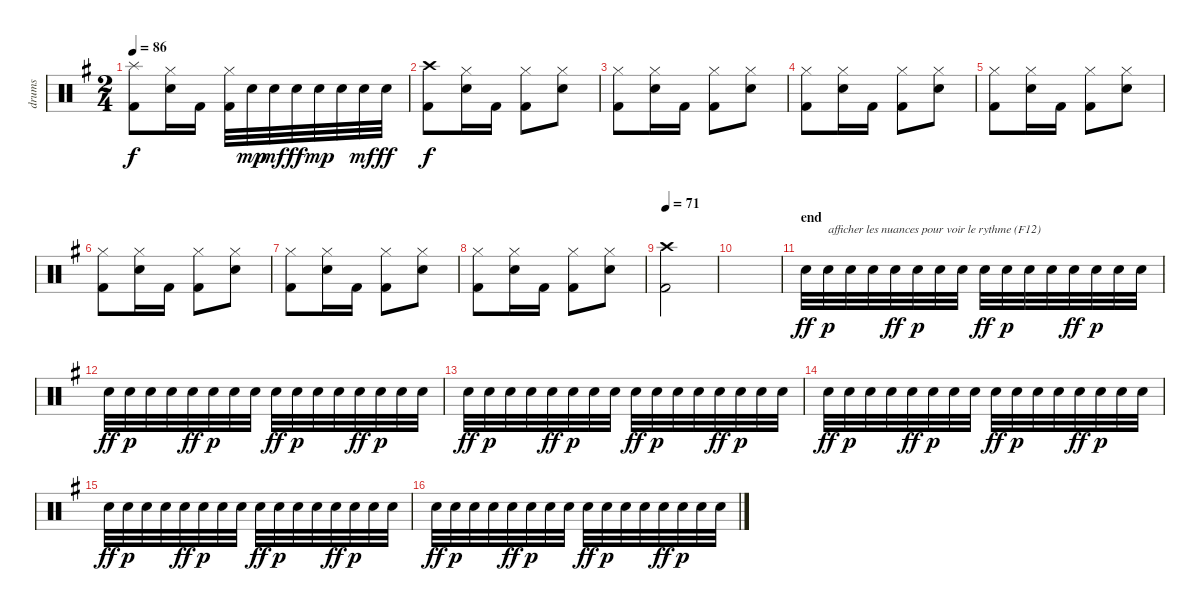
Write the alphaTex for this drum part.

\track ("drums" "drums") {instrument percussion}
\staff {score}
\articulation defaults
\ts (2 4)
\tempo 86
\clef neutral
\ks g
("Splash (hit)" "Kick (hit) 2").8{dy f} ("Hi-Hat (closed)" "Snare (hit) 2").16 "Kick (hit) 2".16 ("Hi-Hat (closed)" "Kick (hit) 2").32 "Snare (hit) 2".32{dy mp} "Snare (hit) 2".32{dy mf} "Snare (hit) 2".32{dy ff} "Snare (hit) 2".32{dy mp} "Snare (hit) 2".32 "Snare (hit) 2".32{dy mf} "Snare (hit) 2".32{dy ff} |
("Crash high (hit)" "Kick (hit) 2").8{dy f} ("Hi-Hat (closed)" "Snare (hit) 2").16 "Kick (hit) 2".16 ("Hi-Hat (closed)" "Kick (hit) 2").8 ("Hi-Hat (closed)" "Snare (hit) 2").8 |
("Hi-Hat (closed)" "Kick (hit) 2").8 ("Hi-Hat (closed)" "Snare (hit) 2").16 "Kick (hit) 2".16 ("Hi-Hat (closed)" "Kick (hit) 2").8 ("Hi-Hat (closed)" "Snare (hit) 2").8 |
("Hi-Hat (closed)" "Kick (hit) 2").8 ("Hi-Hat (closed)" "Snare (hit) 2").16 "Kick (hit) 2".16 ("Hi-Hat (closed)" "Kick (hit) 2").8 ("Hi-Hat (closed)" "Snare (hit) 2").8 |
("Hi-Hat (closed)" "Kick (hit) 2").8 ("Hi-Hat (closed)" "Snare (hit) 2").16 "Kick (hit) 2".16 ("Hi-Hat (closed)" "Kick (hit) 2").8 ("Hi-Hat (closed)" "Snare (hit) 2").8 |
("Hi-Hat (closed)" "Kick (hit) 2").8 ("Hi-Hat (closed)" "Snare (hit) 2").16 "Kick (hit) 2".16 ("Hi-Hat (closed)" "Kick (hit) 2").8 ("Hi-Hat (closed)" "Snare (hit) 2").8 |
("Hi-Hat (closed)" "Kick (hit) 2").8 ("Hi-Hat (closed)" "Snare (hit) 2").16 "Kick (hit) 2".16 ("Hi-Hat (closed)" "Kick (hit) 2").8 ("Hi-Hat (closed)" "Snare (hit) 2").8 |
("Hi-Hat (closed)" "Kick (hit) 2").8 ("Hi-Hat (closed)" "Snare (hit) 2").16 "Kick (hit) 2".16 ("Hi-Hat (closed)" "Kick (hit) 2").8 ("Hi-Hat (closed)" "Snare (hit) 2").8 |
\tempo 71
("Crash high (hit)" "Kick (hit) 2").2 |
|
\section ("" "end")
"Snare (hit) 2".32{dy ff volume 0} "Snare (hit) 2".32{txt "afficher les nuances pour voir le rythme (F12)" dy p} "Snare (hit) 2".32 "Snare (hit) 2".32 "Snare (hit) 2".32{dy ff} "Snare (hit) 2".32{dy p} "Snare (hit) 2".32 "Snare (hit) 2".32 "Snare (hit) 2".32{dy ff volume 1} "Snare (hit) 2".32{dy p} "Snare (hit) 2".32 "Snare (hit) 2".32 "Snare (hit) 2".32{dy ff} "Snare (hit) 2".32{dy p} "Snare (hit) 2".32 "Snare (hit) 2".32 |
"Snare (hit) 2".32{dy ff} "Snare (hit) 2".32{dy p} "Snare (hit) 2".32 "Snare (hit) 2".32 "Snare (hit) 2".32{dy ff} "Snare (hit) 2".32{dy p} "Snare (hit) 2".32 "Snare (hit) 2".32 "Snare (hit) 2".32{dy ff volume 3} "Snare (hit) 2".32{dy p} "Snare (hit) 2".32 "Snare (hit) 2".32 "Snare (hit) 2".32{dy ff} "Snare (hit) 2".32{dy p} "Snare (hit) 2".32 "Snare (hit) 2".32 |
"Snare (hit) 2".32{dy ff} "Snare (hit) 2".32{dy p} "Snare (hit) 2".32 "Snare (hit) 2".32 "Snare (hit) 2".32{dy ff} "Snare (hit) 2".32{dy p} "Snare (hit) 2".32 "Snare (hit) 2".32 "Snare (hit) 2".32{dy ff volume 3} "Snare (hit) 2".32{dy p} "Snare (hit) 2".32 "Snare (hit) 2".32 "Snare (hit) 2".32{dy ff} "Snare (hit) 2".32{dy p} "Snare (hit) 2".32 "Snare (hit) 2".32 |
"Snare (hit) 2".32{dy ff} "Snare (hit) 2".32{dy p} "Snare (hit) 2".32 "Snare (hit) 2".32 "Snare (hit) 2".32{dy ff} "Snare (hit) 2".32{dy p} "Snare (hit) 2".32 "Snare (hit) 2".32 "Snare (hit) 2".32{dy ff volume 5} "Snare (hit) 2".32{dy p} "Snare (hit) 2".32 "Snare (hit) 2".32 "Snare (hit) 2".32{dy ff} "Snare (hit) 2".32{dy p} "Snare (hit) 2".32 "Snare (hit) 2".32 |
"Snare (hit) 2".32{dy ff} "Snare (hit) 2".32{dy p} "Snare (hit) 2".32 "Snare (hit) 2".32 "Snare (hit) 2".32{dy ff} "Snare (hit) 2".32{dy p} "Snare (hit) 2".32 "Snare (hit) 2".32 "Snare (hit) 2".32{dy ff volume 6} "Snare (hit) 2".32{dy p} "Snare (hit) 2".32 "Snare (hit) 2".32 "Snare (hit) 2".32{dy ff} "Snare (hit) 2".32{dy p} "Snare (hit) 2".32 "Snare (hit) 2".32 |
"Snare (hit) 2".32{dy ff} "Snare (hit) 2".32{dy p} "Snare (hit) 2".32 "Snare (hit) 2".32 "Snare (hit) 2".32{dy ff} "Snare (hit) 2".32{dy p} "Snare (hit) 2".32 "Snare (hit) 2".32 "Snare (hit) 2".32{dy ff volume 8} "Snare (hit) 2".32{dy p} "Snare (hit) 2".32 "Snare (hit) 2".32 "Snare (hit) 2".32{dy ff} "Snare (hit) 2".32{dy p} "Snare (hit) 2".32 "Snare (hit) 2".32
